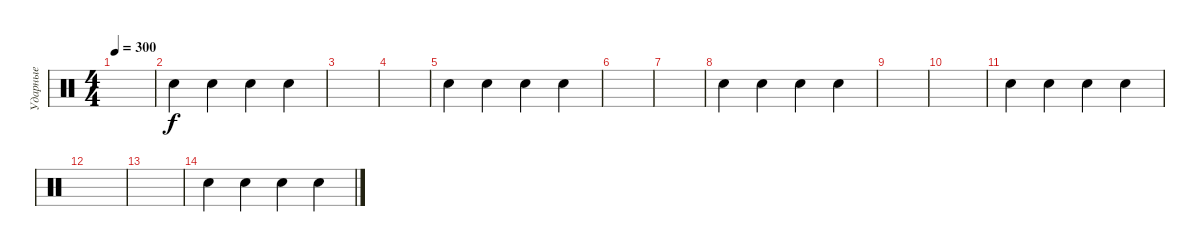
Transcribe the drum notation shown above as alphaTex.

\track ("Ударные" "Ударные") {instrument percussion}
\staff {score}
\articulation defaults
\ts (4 4)
\tempo 300
\clef neutral
\ks c
|
"Snare (hit) 2".4 "Snare (hit) 2".4 "Snare (hit) 2".4 "Snare (hit) 2".4 |
|
|
"Snare (hit) 2".4 "Snare (hit) 2".4 "Snare (hit) 2".4 "Snare (hit) 2".4 |
|
|
"Snare (hit) 2".4 "Snare (hit) 2".4 "Snare (hit) 2".4 "Snare (hit) 2".4 |
|
|
"Snare (hit) 2".4 "Snare (hit) 2".4 "Snare (hit) 2".4 "Snare (hit) 2".4 |
|
|
"Snare (hit) 2".4 "Snare (hit) 2".4 "Snare (hit) 2".4 "Snare (hit) 2".4
